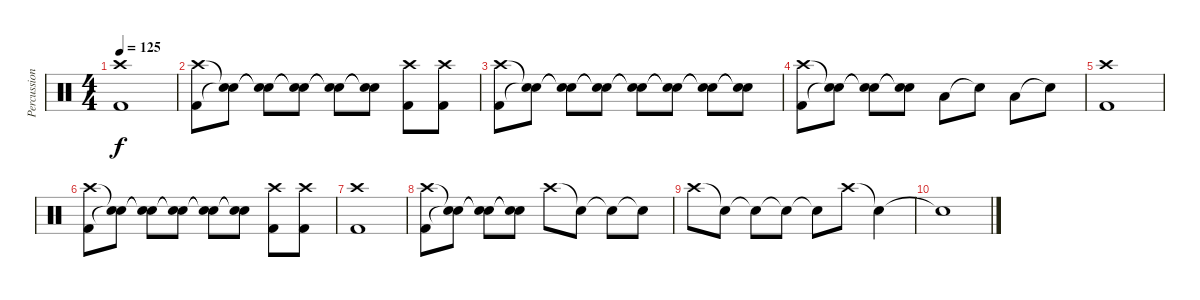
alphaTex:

\track ("Percussion" "Percussion") {instrument percussion}
\staff {score}
\articulation defaults
\ts (4 4)
\tempo 125
\clef neutral
\ks c
("Kick (hit) 2" "Crash high (hit)").1{dy f} |
("Kick (hit) 2" "Crash high (hit)").8 ("Snare (hit)"{t} "Snare (hit)"{t}).8 ("Snare (hit)"{t} "Snare (hit)"{t}).8 ("Snare (hit)"{t} "Snare (hit)"{t}).8 ("Snare (hit)"{t} "Snare (hit)"{t}).8 ("Snare (hit)"{t} "Snare (hit)"{t}).8 ("Kick (hit) 2" "Crash high (hit)").8 ("Kick (hit) 2" "Crash high (hit)").8 |
("Kick (hit) 2" "Crash high (hit)").8 ("Snare (hit)"{t} "Snare (hit)"{t}).8 ("Snare (hit)"{t} "Snare (hit)"{t}).8 ("Snare (hit)"{t} "Snare (hit)"{t}).8 ("Snare (hit)"{t} "Snare (hit)"{t}).8 ("Snare (hit)"{t} "Snare (hit)"{t}).8 ("Snare (hit)"{t} "Snare (hit)"{t}).8 ("Snare (hit)"{t} "Snare (hit)"{t}).8 |
("Kick (hit) 2" "Crash high (hit)").8 ("Snare (hit)"{t} "Snare (hit)"{t}).8 ("Snare (hit)"{t} "Snare (hit)"{t}).8 ("Snare (hit)"{t} "Snare (hit)"{t}).8 "Low Tom (hit)".8 "Snare (hit)"{t}.8 "Low Tom (hit)".8 "Snare (hit)"{t}.8 |
("Kick (hit) 2" "Crash high (hit)").1 |
("Kick (hit) 2" "Crash high (hit)").8 ("Snare (hit)"{t} "Snare (hit)"{t}).8 ("Snare (hit)"{t} "Snare (hit)"{t}).8 ("Snare (hit)"{t} "Snare (hit)"{t}).8 ("Snare (hit)"{t} "Snare (hit)"{t}).8 ("Snare (hit)"{t} "Snare (hit)"{t}).8 ("Kick (hit) 2" "Crash high (hit)").8 ("Kick (hit) 2" "Crash high (hit)").8 |
("Kick (hit) 2" "Crash high (hit)").1 |
("Kick (hit) 2" "Crash high (hit)").8 ("Snare (hit)"{t} "Snare (hit)"{t}).8 ("Snare (hit)"{t} "Snare (hit)"{t}).8 ("Snare (hit)"{t} "Snare (hit)"{t}).8 "Crash high (hit)".8 "Snare (hit)"{t}.8 "Snare (hit)"{t}.8 "Snare (hit)"{t}.8 |
"Crash high (hit)".8 "Snare (hit)"{t}.8 "Snare (hit)"{t}.8 "Snare (hit)"{t}.8 "Snare (hit)"{t}.8 "Crash high (hit)".8 "Snare (hit)"{t}.4 |
"Snare (hit)"{t}.1
